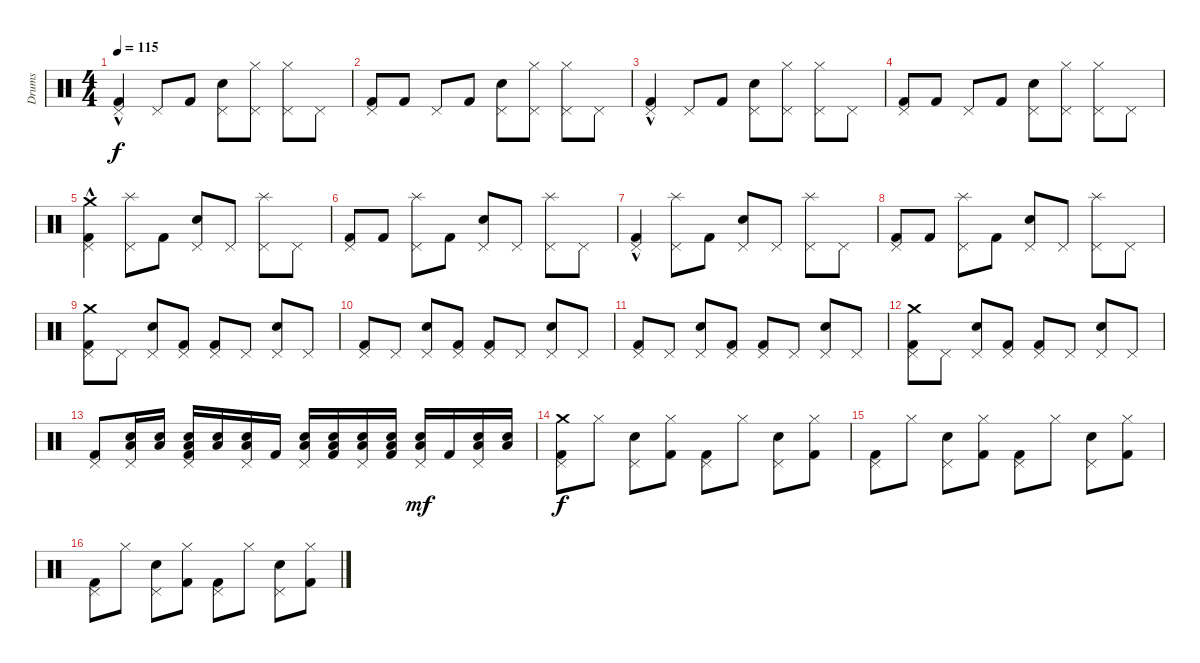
\track ("Drums" "Drums") {instrument percussion}
\staff {score}
\articulation defaults
\ts (4 4)
\tempo 115
\clef neutral
\ks c
("Pedal Hi-Hat (hit)" "Kick (hit) 2"{hac}).4{dy f} "Pedal Hi-Hat (hit)".8 "Kick (hit) 2".8 ("Pedal Hi-Hat (hit)" "Snare (hit) 2").8 ("Hi-Hat (closed)" "Pedal Hi-Hat (hit)").8 ("Hi-Hat (closed)" "Pedal Hi-Hat (hit)").8 "Pedal Hi-Hat (hit)".8 |
("Pedal Hi-Hat (hit)" "Kick (hit) 2").8 "Kick (hit) 2".8 "Pedal Hi-Hat (hit)".8 "Kick (hit) 2".8 ("Pedal Hi-Hat (hit)" "Snare (hit) 2").8 ("Hi-Hat (closed)" "Pedal Hi-Hat (hit)").8 ("Hi-Hat (closed)" "Pedal Hi-Hat (hit)").8 "Pedal Hi-Hat (hit)".8 |
("Pedal Hi-Hat (hit)" "Kick (hit) 2"{hac}).4 "Pedal Hi-Hat (hit)".8 "Kick (hit) 2".8 ("Pedal Hi-Hat (hit)" "Snare (hit) 2").8 ("Hi-Hat (closed)" "Pedal Hi-Hat (hit)").8 ("Hi-Hat (closed)" "Pedal Hi-Hat (hit)").8 "Pedal Hi-Hat (hit)".8 |
("Pedal Hi-Hat (hit)" "Kick (hit) 2").8 "Kick (hit) 2".8 "Pedal Hi-Hat (hit)".8 "Kick (hit) 2".8 ("Pedal Hi-Hat (hit)" "Snare (hit) 2").8 ("Hi-Hat (closed)" "Pedal Hi-Hat (hit)").8 ("Hi-Hat (closed)" "Pedal Hi-Hat (hit)").8 "Pedal Hi-Hat (hit)".8 |
("Pedal Hi-Hat (hit)" "Kick (hit) 2"{hac} "Crash medium (hit)").4 ("Splash (hit)" "Pedal Hi-Hat (hit)").8 "Kick (hit) 2".8 ("Pedal Hi-Hat (hit)" "Snare (hit) 2").8 "Pedal Hi-Hat (hit)".8 ("Splash (hit)" "Pedal Hi-Hat (hit)").8 "Pedal Hi-Hat (hit)".8 |
("Pedal Hi-Hat (hit)" "Kick (hit) 2").8 "Kick (hit) 2".8 ("Splash (hit)" "Pedal Hi-Hat (hit)").8 "Kick (hit) 2".8 ("Pedal Hi-Hat (hit)" "Snare (hit) 2").8 "Pedal Hi-Hat (hit)".8 ("Splash (hit)" "Pedal Hi-Hat (hit)").8 "Pedal Hi-Hat (hit)".8 |
("Pedal Hi-Hat (hit)" "Kick (hit) 2"{hac}).4 ("Splash (hit)" "Pedal Hi-Hat (hit)").8 "Kick (hit) 2".8 ("Pedal Hi-Hat (hit)" "Snare (hit) 2").8 "Pedal Hi-Hat (hit)".8 ("Splash (hit)" "Pedal Hi-Hat (hit)").8 "Pedal Hi-Hat (hit)".8 |
("Pedal Hi-Hat (hit)" "Kick (hit) 2").8 "Kick (hit) 2".8 ("Splash (hit)" "Pedal Hi-Hat (hit)").8 "Kick (hit) 2".8 ("Pedal Hi-Hat (hit)" "Snare (hit) 2").8 "Pedal Hi-Hat (hit)".8 ("Splash (hit)" "Pedal Hi-Hat (hit)").8 "Pedal Hi-Hat (hit)".8 |
("Crash medium (hit)" "Pedal Hi-Hat (hit)" "Kick (hit) 2").8 "Pedal Hi-Hat (hit)".8 ("Pedal Hi-Hat (hit)" "Snare (hit) 2").8 ("Pedal Hi-Hat (hit)" "Kick (hit) 2").8 ("Pedal Hi-Hat (hit)" "Kick (hit) 2").8 "Pedal Hi-Hat (hit)".8 ("Pedal Hi-Hat (hit)" "Snare (hit) 2").8 "Pedal Hi-Hat (hit)".8 |
("Pedal Hi-Hat (hit)" "Kick (hit) 2").8 "Pedal Hi-Hat (hit)".8 ("Pedal Hi-Hat (hit)" "Snare (hit) 2").8 ("Pedal Hi-Hat (hit)" "Kick (hit) 2").8 ("Pedal Hi-Hat (hit)" "Kick (hit) 2").8 "Pedal Hi-Hat (hit)".8 ("Pedal Hi-Hat (hit)" "Snare (hit) 2").8 "Pedal Hi-Hat (hit)".8 |
("Pedal Hi-Hat (hit)" "Kick (hit) 2").8 "Pedal Hi-Hat (hit)".8 ("Pedal Hi-Hat (hit)" "Snare (hit) 2").8 ("Pedal Hi-Hat (hit)" "Kick (hit) 2").8 ("Pedal Hi-Hat (hit)" "Kick (hit) 2").8 "Pedal Hi-Hat (hit)".8 ("Pedal Hi-Hat (hit)" "Snare (hit) 2").8 "Pedal Hi-Hat (hit)".8 |
("Crash medium (hit)" "Kick (hit) 2" "Pedal Hi-Hat (hit)").8 "Pedal Hi-Hat (hit)".8 ("Pedal Hi-Hat (hit)" "Snare (hit) 2").8 ("Pedal Hi-Hat (hit)" "Kick (hit) 2").8 ("Pedal Hi-Hat (hit)" "Kick (hit) 2").8 "Pedal Hi-Hat (hit)".8 ("Pedal Hi-Hat (hit)" "Snare (hit) 2").8 "Pedal Hi-Hat (hit)".8 |
("Pedal Hi-Hat (hit)" "Kick (hit) 2").8 ("Low Tom (hit)" "Pedal Hi-Hat (hit)" "Snare (hit) 2").16 ("Low Tom (hit)" "Snare (hit) 2").16 ("Low Tom (hit)" "Kick (hit) 2" "Pedal Hi-Hat (hit)" "Snare (hit) 2").16 ("Low Tom (hit)" "Snare (hit) 2").16 ("Low Tom (hit)" "Pedal Hi-Hat (hit)" "Snare (hit) 2").16 "Kick (hit) 2".16 ("Low Tom (hit)" "Pedal Hi-Hat (hit)" "Snare (hit) 2").16 ("Low Tom (hit)" "Snare (hit) 2" "Kick (hit) 2").16 ("Low Tom (hit)" "Pedal Hi-Hat (hit)" "Snare (hit) 2").16 ("Low Tom (hit)" "Snare (hit) 2" "Kick (hit) 2").16 ("Low Tom (hit)" "Pedal Hi-Hat (hit)" "Snare (hit) 2").16{dy mf} "Kick (hit) 2".16 ("Low Tom (hit)" "Pedal Hi-Hat (hit)" "Snare (hit) 2").16 ("Low Tom (hit)" "Snare (hit) 2").16 |
("Kick (hit) 2" "Pedal Hi-Hat (hit)" "Crash medium (hit)").8{dy f} "Hi-Hat (closed)".8 ("Snare (hit) 2" "Pedal Hi-Hat (hit)").8 ("Kick (hit) 2" "Hi-Hat (closed)").8 ("Kick (hit) 2" "Pedal Hi-Hat (hit)").8 "Hi-Hat (closed)".8 ("Snare (hit) 2" "Pedal Hi-Hat (hit)").8 ("Kick (hit) 2" "Hi-Hat (closed)").8 |
("Kick (hit) 2" "Pedal Hi-Hat (hit)").8 "Hi-Hat (closed)".8 ("Snare (hit) 2" "Pedal Hi-Hat (hit)").8 ("Kick (hit) 2" "Hi-Hat (closed)").8 ("Kick (hit) 2" "Pedal Hi-Hat (hit)").8 "Hi-Hat (closed)".8 ("Snare (hit) 2" "Pedal Hi-Hat (hit)").8 ("Kick (hit) 2" "Hi-Hat (closed)").8 |
("Kick (hit) 2" "Pedal Hi-Hat (hit)").8 "Hi-Hat (closed)".8 ("Snare (hit) 2" "Pedal Hi-Hat (hit)").8 ("Hi-Hat (closed)" "Kick (hit) 2").8 ("Kick (hit) 2" "Pedal Hi-Hat (hit)").8 "Hi-Hat (closed)".8 ("Snare (hit) 2" "Pedal Hi-Hat (hit)").8 ("Kick (hit) 2" "Hi-Hat (closed)").8
